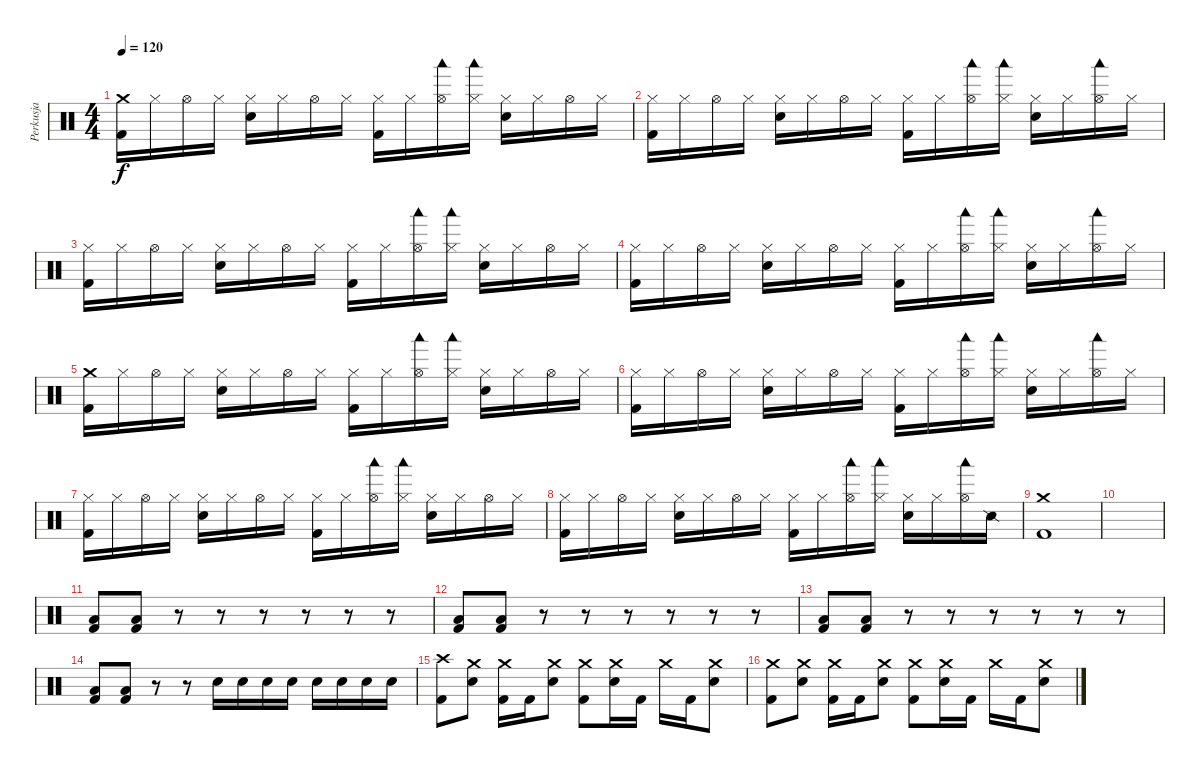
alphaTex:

\track ("Perkusja" "Perkusja") {instrument percussion}
\staff {score}
\articulation defaults
\ts (4 4)
\tempo 120
\clef neutral
\ks c
("Crash medium (hit)" "Kick (hit) 2").16{dy f} "Hi-Hat (closed)".16 "Hi-Hat (open)".16 "Hi-Hat (closed)".16 ("Hi-Hat (closed)" "Snare (hit) 2").16 "Hi-Hat (closed)".16 "Hi-Hat (open)".16 "Hi-Hat (closed)".16 ("Hi-Hat (closed)" "Kick (hit) 2").16 "Hi-Hat (closed)".16 ("Hi-Hat (open)" "Woodblock low (hit)").16 ("Hi-Hat (closed)" "Woodblock low (hit)").16 ("Hi-Hat (closed)" "Snare (hit) 2").16 "Hi-Hat (closed)".16 "Hi-Hat (open)".16 "Hi-Hat (closed)".16 |
("Hi-Hat (closed)" "Kick (hit) 2").16 "Hi-Hat (closed)".16 "Hi-Hat (open)".16 "Hi-Hat (closed)".16 ("Hi-Hat (closed)" "Snare (hit) 2").16 "Hi-Hat (closed)".16 "Hi-Hat (open)".16 "Hi-Hat (closed)".16 ("Hi-Hat (closed)" "Kick (hit) 2").16 "Hi-Hat (closed)".16 ("Hi-Hat (open)" "Woodblock low (hit)").16 ("Hi-Hat (closed)" "Woodblock low (hit)").16 ("Hi-Hat (closed)" "Snare (hit) 2").16 "Hi-Hat (closed)".16 ("Hi-Hat (open)" "Woodblock low (hit)").16 "Hi-Hat (closed)".16 |
("Hi-Hat (closed)" "Kick (hit) 2").16 "Hi-Hat (closed)".16 "Hi-Hat (open)".16 "Hi-Hat (closed)".16 ("Hi-Hat (closed)" "Snare (hit) 2").16 "Hi-Hat (closed)".16 "Hi-Hat (open)".16 "Hi-Hat (closed)".16 ("Hi-Hat (closed)" "Kick (hit) 2").16 "Hi-Hat (closed)".16 ("Hi-Hat (open)" "Woodblock low (hit)").16 ("Hi-Hat (closed)" "Woodblock low (hit)").16 ("Hi-Hat (closed)" "Snare (hit) 2").16 "Hi-Hat (closed)".16 "Hi-Hat (open)".16 "Hi-Hat (closed)".16 |
("Hi-Hat (closed)" "Kick (hit) 2").16 "Hi-Hat (closed)".16 "Hi-Hat (open)".16 "Hi-Hat (closed)".16 ("Hi-Hat (closed)" "Snare (hit) 2").16 "Hi-Hat (closed)".16 "Hi-Hat (open)".16 "Hi-Hat (closed)".16 ("Hi-Hat (closed)" "Kick (hit) 2").16 "Hi-Hat (closed)".16 ("Hi-Hat (open)" "Woodblock low (hit)").16 ("Hi-Hat (closed)" "Woodblock low (hit)").16 ("Hi-Hat (closed)" "Snare (hit) 2").16 "Hi-Hat (closed)".16 ("Hi-Hat (open)" "Woodblock low (hit)").16 "Hi-Hat (closed)".16 |
("Crash medium (hit)" "Kick (hit) 2").16 "Hi-Hat (closed)".16 "Hi-Hat (open)".16 "Hi-Hat (closed)".16 ("Hi-Hat (closed)" "Snare (hit) 2").16 "Hi-Hat (closed)".16 "Hi-Hat (open)".16 "Hi-Hat (closed)".16 ("Hi-Hat (closed)" "Kick (hit) 2").16 "Hi-Hat (closed)".16 ("Hi-Hat (open)" "Woodblock low (hit)").16 ("Hi-Hat (closed)" "Woodblock low (hit)").16 ("Hi-Hat (closed)" "Snare (hit) 2").16 "Hi-Hat (closed)".16 "Hi-Hat (open)".16 "Hi-Hat (closed)".16 |
("Hi-Hat (closed)" "Kick (hit) 2").16 "Hi-Hat (closed)".16 "Hi-Hat (open)".16 "Hi-Hat (closed)".16 ("Hi-Hat (closed)" "Snare (hit) 2").16 "Hi-Hat (closed)".16 "Hi-Hat (open)".16 "Hi-Hat (closed)".16 ("Hi-Hat (closed)" "Kick (hit) 2").16 "Hi-Hat (closed)".16 ("Hi-Hat (open)" "Woodblock low (hit)").16 ("Hi-Hat (closed)" "Woodblock low (hit)").16 ("Hi-Hat (closed)" "Snare (hit) 2").16 "Hi-Hat (closed)".16 ("Hi-Hat (open)" "Woodblock low (hit)").16 "Hi-Hat (closed)".16 |
("Hi-Hat (closed)" "Kick (hit) 2").16 "Hi-Hat (closed)".16 "Hi-Hat (open)".16 "Hi-Hat (closed)".16 ("Hi-Hat (closed)" "Snare (hit) 2").16 "Hi-Hat (closed)".16 "Hi-Hat (open)".16 "Hi-Hat (closed)".16 ("Hi-Hat (closed)" "Kick (hit) 2").16 "Hi-Hat (closed)".16 ("Hi-Hat (open)" "Woodblock low (hit)").16 ("Hi-Hat (closed)" "Woodblock low (hit)").16 ("Hi-Hat (closed)" "Snare (hit) 2").16 "Hi-Hat (closed)".16 "Hi-Hat (open)".16 "Hi-Hat (closed)".16 |
("Hi-Hat (closed)" "Kick (hit) 2").16 "Hi-Hat (closed)".16 "Hi-Hat (open)".16 "Hi-Hat (closed)".16 ("Hi-Hat (closed)" "Snare (hit) 2").16 "Hi-Hat (closed)".16 "Hi-Hat (open)".16 "Hi-Hat (closed)".16 ("Hi-Hat (closed)" "Kick (hit) 2").16 "Hi-Hat (closed)".16 ("Hi-Hat (open)" "Woodblock low (hit)").16 ("Hi-Hat (closed)" "Woodblock low (hit)").16 ("Hi-Hat (closed)" "Snare (hit) 2").16 "Hi-Hat (closed)".16 ("Hi-Hat (open)" "Woodblock low (hit)").16 "Snare (side stick) 2".16 |
("Crash medium (hit)" "Kick (hit) 2").1 |
|
("Low Tom (hit)" "Kick (hit) 2").8 ("Low Tom (hit)" "Kick (hit) 2").8 r.8 r.8 r.8 r.8 r.8 r.8 |
("Low Tom (hit)" "Kick (hit) 2").8 ("Low Tom (hit)" "Kick (hit) 2").8 r.8 r.8 r.8 r.8 r.8 r.8 |
("Low Tom (hit)" "Kick (hit) 2").8 ("Low Tom (hit)" "Kick (hit) 2").8 r.8 r.8 r.8 r.8 r.8 r.8 |
("Low Tom (hit)" "Kick (hit) 2").8 ("Low Tom (hit)" "Kick (hit) 2").8 r.8 r.8 "Snare (hit) 2".16 "Snare (hit) 2".16 "Snare (hit) 2".16 "Snare (hit) 2".16 "Snare (hit) 2".16 "Snare (hit) 2".16 "Snare (hit) 2".16 "Snare (hit) 2".16 |
("Crash high (hit)" "Kick (hit) 2").8 ("Crash medium (hit)" "Snare (hit) 2").8 ("Crash medium (hit)" "Kick (hit) 2").16 "Kick (hit) 2".16 ("Crash medium (hit)" "Snare (hit) 2").8 ("Crash medium (hit)" "Kick (hit) 2").8 ("Crash medium (hit)" "Snare (hit) 2").16 "Kick (hit) 2".16 "Crash medium (hit)".16 "Kick (hit) 2".16 ("Crash medium (hit)" "Snare (hit) 2").8 |
("Crash medium (hit)" "Kick (hit) 2").8 ("Crash medium (hit)" "Snare (hit) 2").8 ("Crash medium (hit)" "Kick (hit) 2").16 "Kick (hit) 2".16 ("Crash medium (hit)" "Snare (hit) 2").8 ("Crash medium (hit)" "Kick (hit) 2").8 ("Crash medium (hit)" "Snare (hit) 2").16 "Kick (hit) 2".16 "Crash medium (hit)".16 "Kick (hit) 2".16 ("Crash medium (hit)" "Snare (hit) 2").8
